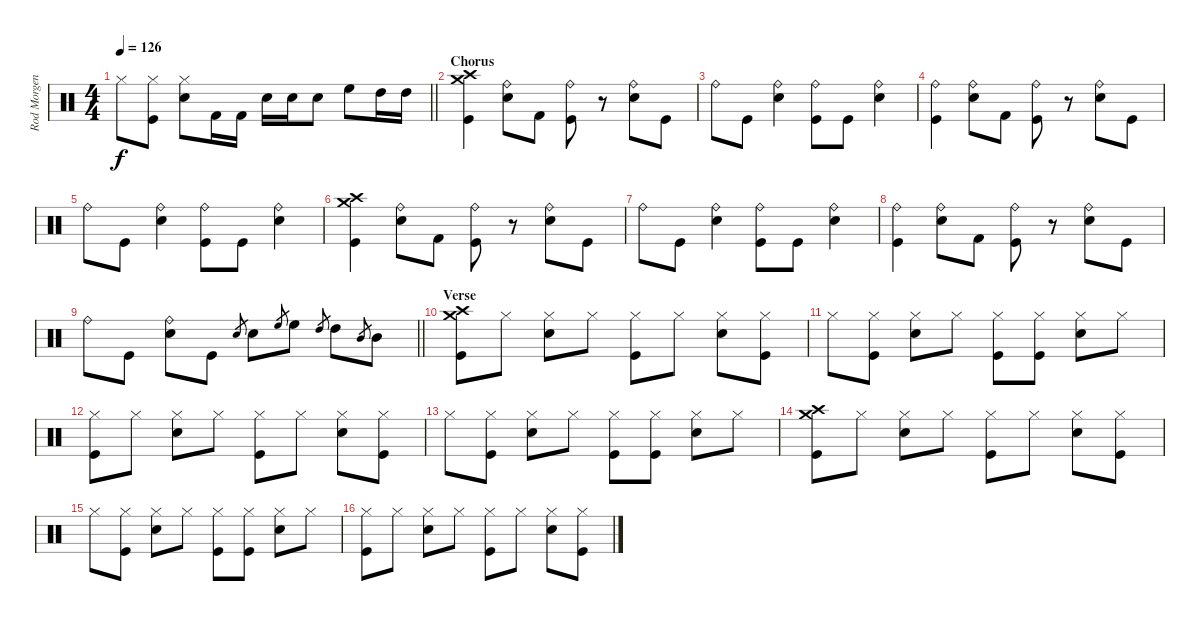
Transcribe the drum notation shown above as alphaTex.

\track ("Rod Morgenstein" "Rod Morgen") {instrument percussion}
\staff {score}
\articulation defaults
\ts (4 4)
\tempo 126
\clef neutral
\barLineRight lightlight
\ks c "Hi-Hat (closed)".8{dy f}
("Hi-Hat (closed)" "Kick (hit)").8 ("Hi-Hat (closed)" "Snare (hit) 2").8 "Kick (hit) 2".16 "Kick (hit) 2".16 "Snare (hit) 2".16 "Snare (hit) 2".16 "Snare (hit) 2".8 "High Floor Tom (hit)".8 "High Tom (hit)".16 "High Tom (hit)".16 |
\section ("" "Chorus")
("Crash high (hit)" "Crash medium (hit)" "Kick (hit)").4 ("Snare (hit) 2" "Ride (bell)").8 "Kick (hit) 2".8 ("Ride (bell)" "Kick (hit)").8 r.8 ("Ride (bell)" "Snare (hit) 2").8 "Kick (hit)".8 |
"Ride (bell)".8 "Kick (hit)".8 ("Snare (hit) 2" "Ride (bell)").4 ("Ride (bell)" "Kick (hit)").8 "Kick (hit)".8 ("Ride (bell)" "Snare (hit) 2").4 |
("Ride (bell)" "Kick (hit)").4 ("Snare (hit) 2" "Ride (bell)").8 "Kick (hit) 2".8 ("Ride (bell)" "Kick (hit)").8 r.8 ("Ride (bell)" "Snare (hit) 2").8 "Kick (hit)".8 |
"Ride (bell)".8 "Kick (hit)".8 ("Snare (hit) 2" "Ride (bell)").4 ("Ride (bell)" "Kick (hit)").8 "Kick (hit)".8 ("Ride (bell)" "Snare (hit) 2").4 |
("Crash high (hit)" "Crash medium (hit)" "Kick (hit)").4 ("Snare (hit) 2" "Ride (bell)").8 "Kick (hit) 2".8 ("Ride (bell)" "Kick (hit)").8 r.8 ("Ride (bell)" "Snare (hit) 2").8 "Kick (hit)".8 |
"Ride (bell)".8 "Kick (hit)".8 ("Snare (hit) 2" "Ride (bell)").4 ("Ride (bell)" "Kick (hit)").8 "Kick (hit)".8 ("Ride (bell)" "Snare (hit) 2").4 |
("Ride (bell)" "Kick (hit)").4 ("Snare (hit) 2" "Ride (bell)").8 "Kick (hit) 2".8 ("Ride (bell)" "Kick (hit)").8 r.8 ("Ride (bell)" "Snare (hit) 2").8 "Kick (hit)".8 |
\barLineRight lightlight "Ride (bell)".8 "Kick (hit)".8
("Snare (hit) 2" "Ride (bell)").8 "Kick (hit)".8 "Snare (hit) 2".8{gr} "Snare (hit) 2".8 "High Floor Tom (hit)".8{gr} "High Floor Tom (hit)".8 "High Tom (hit)".8{gr} "High Tom (hit)".8 "Mid Tom (hit)".8{gr} "Mid Tom (hit)".8 |
\section ("" "Verse")
("Kick (hit)" "Crash high (hit)" "Crash medium (hit)").8 "Hi-Hat (closed)".8 ("Snare (hit) 2" "Hi-Hat (closed)").8 "Hi-Hat (closed)".8 ("Kick (hit)" "Hi-Hat (closed)").8 "Hi-Hat (closed)".8 ("Snare (hit) 2" "Hi-Hat (closed)").8 ("Hi-Hat (closed)" "Kick (hit)").8 |
"Hi-Hat (closed)".8 ("Hi-Hat (closed)" "Kick (hit)").8 ("Hi-Hat (closed)" "Snare (hit) 2").8 "Hi-Hat (closed)".8 ("Hi-Hat (closed)" "Kick (hit)").8 ("Hi-Hat (closed)" "Kick (hit)").8 ("Hi-Hat (closed)" "Snare (hit) 2").8 "Hi-Hat (closed)".8 |
("Kick (hit)" "Hi-Hat (closed)").8 "Hi-Hat (closed)".8 ("Snare (hit) 2" "Hi-Hat (closed)").8 "Hi-Hat (closed)".8 ("Kick (hit)" "Hi-Hat (closed)").8 "Hi-Hat (closed)".8 ("Snare (hit) 2" "Hi-Hat (closed)").8 ("Hi-Hat (closed)" "Kick (hit)").8 |
"Hi-Hat (closed)".8 ("Hi-Hat (closed)" "Kick (hit)").8 ("Hi-Hat (closed)" "Snare (hit) 2").8 "Hi-Hat (closed)".8 ("Hi-Hat (closed)" "Kick (hit)").8 ("Hi-Hat (closed)" "Kick (hit)").8 ("Hi-Hat (closed)" "Snare (hit) 2").8 "Hi-Hat (closed)".8 |
("Kick (hit)" "Crash high (hit)" "Crash medium (hit)").8 "Hi-Hat (closed)".8 ("Snare (hit) 2" "Hi-Hat (closed)").8 "Hi-Hat (closed)".8 ("Kick (hit)" "Hi-Hat (closed)").8 "Hi-Hat (closed)".8 ("Snare (hit) 2" "Hi-Hat (closed)").8 ("Hi-Hat (closed)" "Kick (hit)").8 |
"Hi-Hat (closed)".8 ("Hi-Hat (closed)" "Kick (hit)").8 ("Hi-Hat (closed)" "Snare (hit) 2").8 "Hi-Hat (closed)".8 ("Hi-Hat (closed)" "Kick (hit)").8 ("Hi-Hat (closed)" "Kick (hit)").8 ("Hi-Hat (closed)" "Snare (hit) 2").8 "Hi-Hat (closed)".8 |
("Kick (hit)" "Hi-Hat (closed)").8 "Hi-Hat (closed)".8 ("Snare (hit) 2" "Hi-Hat (closed)").8 "Hi-Hat (closed)".8 ("Kick (hit)" "Hi-Hat (closed)").8 "Hi-Hat (closed)".8 ("Snare (hit) 2" "Hi-Hat (closed)").8 ("Hi-Hat (closed)" "Kick (hit)").8
